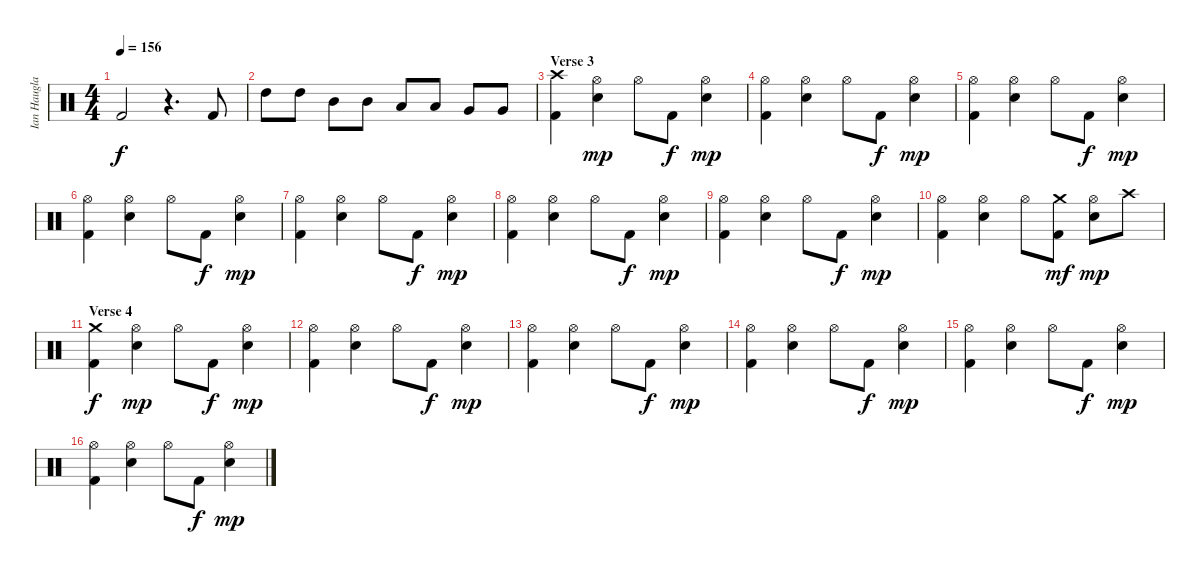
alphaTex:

\track ("Ian Haugland" "Ian Haugla") {instrument percussion}
\staff {score}
\articulation defaults
\ts (4 4)
\tempo 156
\clef neutral
\ks c "Kick (hit) 2".2{dy f}
r.4{d} "Kick (hit) 2".8 |
"High Tom (hit)".8 "High Tom (hit)".8 "Mid Tom (hit)".8 "Mid Tom (hit)".8 "Low Tom (hit)".8 "Low Tom (hit)".8 "Very Low Tom (hit)".8 "Very Low Tom (hit)".8 |
\section ("" "Verse 3")
("Kick (hit) 2" "Crash high (hit)").4 ("Hi-Hat (open)" "Snare (hit) 2").4{dy mp} "Hi-Hat (open)".8 "Kick (hit) 2".8{dy f} ("Hi-Hat (open)" "Snare (hit) 2").4{dy mp} |
("Kick (hit) 2" "Hi-Hat (open)").4 ("Hi-Hat (open)" "Snare (hit) 2").4 "Hi-Hat (open)".8 "Kick (hit) 2".8{dy f} ("Hi-Hat (open)" "Snare (hit) 2").4{dy mp} |
("Kick (hit) 2" "Hi-Hat (open)").4 ("Hi-Hat (open)" "Snare (hit) 2").4 "Hi-Hat (open)".8 "Kick (hit) 2".8{dy f} ("Hi-Hat (open)" "Snare (hit) 2").4{dy mp} |
("Kick (hit) 2" "Hi-Hat (open)").4 ("Hi-Hat (open)" "Snare (hit) 2").4 "Hi-Hat (open)".8 "Kick (hit) 2".8{dy f} ("Hi-Hat (open)" "Snare (hit) 2").4{dy mp} |
("Kick (hit) 2" "Hi-Hat (open)").4 ("Hi-Hat (open)" "Snare (hit) 2").4 "Hi-Hat (open)".8 "Kick (hit) 2".8{dy f} ("Hi-Hat (open)" "Snare (hit) 2").4{dy mp} |
("Kick (hit) 2" "Hi-Hat (open)").4 ("Hi-Hat (open)" "Snare (hit) 2").4 "Hi-Hat (open)".8 "Kick (hit) 2".8{dy f} ("Hi-Hat (open)" "Snare (hit) 2").4{dy mp} |
("Kick (hit) 2" "Hi-Hat (open)").4 ("Hi-Hat (open)" "Snare (hit) 2").4 "Hi-Hat (open)".8 "Kick (hit) 2".8{dy f} ("Hi-Hat (open)" "Snare (hit) 2").4{dy mp} |
("Kick (hit) 2" "Hi-Hat (open)").4 ("Hi-Hat (open)" "Snare (hit) 2").4 "Hi-Hat (open)".8 ("Kick (hit) 2" "Crash medium (hit)").8{dy mf} ("Hi-Hat (open)" "Snare (hit) 2").8{dy mp} "Crash high (hit)".8 |
\section ("" "Verse 4")
("Kick (hit) 2" "Crash medium (hit)").4{dy f} ("Hi-Hat (open)" "Snare (hit) 2").4{dy mp} "Hi-Hat (open)".8 "Kick (hit) 2".8{dy f} ("Hi-Hat (open)" "Snare (hit) 2").4{dy mp} |
("Kick (hit) 2" "Hi-Hat (open)").4 ("Hi-Hat (open)" "Snare (hit) 2").4 "Hi-Hat (open)".8 "Kick (hit) 2".8{dy f} ("Hi-Hat (open)" "Snare (hit) 2").4{dy mp} |
("Kick (hit) 2" "Hi-Hat (open)").4 ("Hi-Hat (open)" "Snare (hit) 2").4 "Hi-Hat (open)".8 "Kick (hit) 2".8{dy f} ("Hi-Hat (open)" "Snare (hit) 2").4{dy mp} |
("Kick (hit) 2" "Hi-Hat (open)").4 ("Hi-Hat (open)" "Snare (hit) 2").4 "Hi-Hat (open)".8 "Kick (hit) 2".8{dy f} ("Hi-Hat (open)" "Snare (hit) 2").4{dy mp} |
("Kick (hit) 2" "Hi-Hat (open)").4 ("Hi-Hat (open)" "Snare (hit) 2").4 "Hi-Hat (open)".8 "Kick (hit) 2".8{dy f} ("Hi-Hat (open)" "Snare (hit) 2").4{dy mp} |
("Kick (hit) 2" "Hi-Hat (open)").4 ("Hi-Hat (open)" "Snare (hit) 2").4 "Hi-Hat (open)".8 "Kick (hit) 2".8{dy f} ("Hi-Hat (open)" "Snare (hit) 2").4{dy mp}
